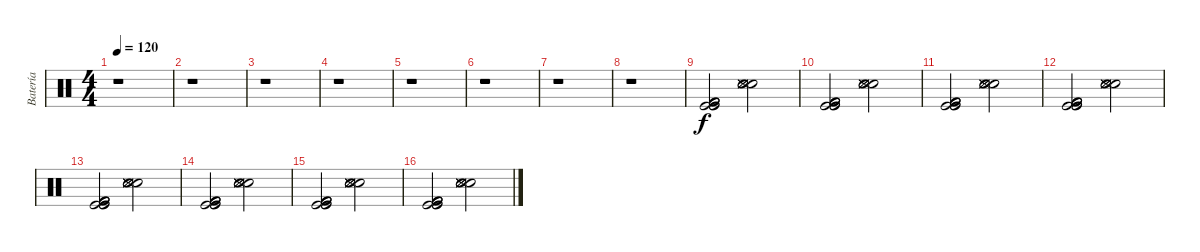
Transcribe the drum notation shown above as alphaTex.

\track ("Batería" "Batería") {instrument percussion}
\staff {score}
\articulation defaults
\ts (4 4)
\tempo 120
\clef neutral
\ks c
r.1{dy f} |
r.1 |
r.1 |
r.1 |
r.1 |
r.1 |
r.1 |
r.1 |
("Kick (hit) 2" "Kick (hit)" "Kick (hit) 2" "Kick (hit)" "Kick (hit) 2" "Kick (hit)").2 ("Electric Snare (hit)" "Snare (side stick) 3" "Snare (side stick) 3" "Snare (hit) 2" "Snare (side stick) 3" "Snare (hit) 2").2 |
("Kick (hit) 2" "Kick (hit)" "Kick (hit) 2" "Kick (hit)" "Kick (hit) 2" "Kick (hit)").2 ("Electric Snare (hit)" "Snare (side stick) 3" "Snare (side stick) 3" "Snare (hit) 2" "Snare (side stick) 3" "Snare (hit) 2").2 |
("Kick (hit) 2" "Kick (hit)" "Kick (hit) 2" "Kick (hit)" "Kick (hit) 2" "Kick (hit)").2 ("Electric Snare (hit)" "Snare (side stick) 3" "Snare (side stick) 3" "Snare (hit) 2" "Snare (side stick) 3" "Snare (hit) 2").2 |
("Kick (hit) 2" "Kick (hit)" "Kick (hit) 2" "Kick (hit)" "Kick (hit) 2" "Kick (hit)").2 ("Electric Snare (hit)" "Snare (side stick) 3" "Snare (side stick) 3" "Snare (hit) 2" "Snare (side stick) 3" "Snare (hit) 2").2 |
("Kick (hit) 2" "Kick (hit)" "Kick (hit) 2" "Kick (hit)" "Kick (hit) 2" "Kick (hit)").2 ("Electric Snare (hit)" "Snare (side stick) 3" "Snare (side stick) 3" "Snare (hit) 2" "Snare (side stick) 3" "Snare (hit) 2").2 |
("Kick (hit) 2" "Kick (hit)" "Kick (hit) 2" "Kick (hit)" "Kick (hit) 2" "Kick (hit)").2 ("Electric Snare (hit)" "Snare (side stick) 3" "Snare (side stick) 3" "Snare (hit) 2" "Snare (side stick) 3" "Snare (hit) 2").2 |
("Kick (hit) 2" "Kick (hit)" "Kick (hit) 2" "Kick (hit)" "Kick (hit) 2" "Kick (hit)").2 ("Electric Snare (hit)" "Snare (side stick) 3" "Snare (side stick) 3" "Snare (hit) 2" "Snare (side stick) 3" "Snare (hit) 2").2 |
("Kick (hit) 2" "Kick (hit)" "Kick (hit) 2" "Kick (hit)" "Kick (hit) 2" "Kick (hit)").2 ("Electric Snare (hit)" "Snare (side stick) 3" "Snare (side stick) 3" "Snare (hit) 2" "Snare (side stick) 3" "Snare (hit) 2").2
